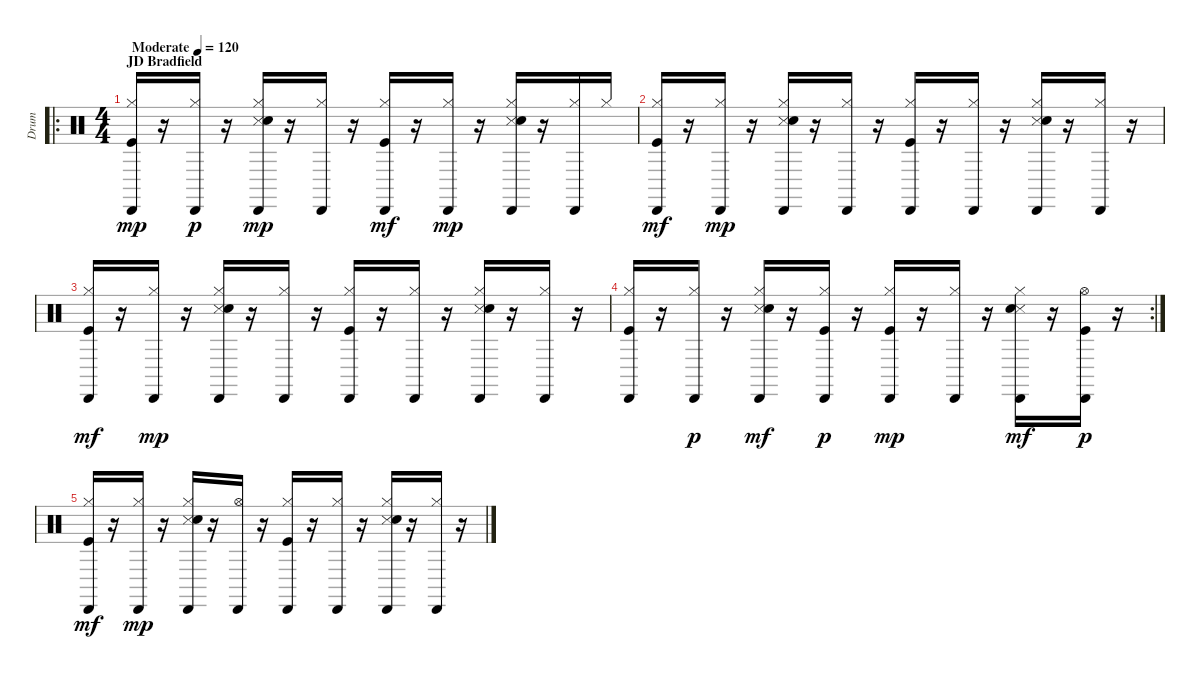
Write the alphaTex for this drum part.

\track ("Drum" "Drum") {instrument percussion}
\staff {score}
\articulation defaults
\ro
\ts (4 4)
\section ("" "JD Bradfield")
\tempo (120 "Moderate")
\clef neutral
\ks c
("Kick (hit)" "Hi-Hat (closed)" "Cabasa (hit)").16{dy mp} r.16 ("Hi-Hat (closed)" "Cabasa (hit)").16{dy p} r.16 ("Hi-Hat (closed)" "Snare (side stick) 3" "Hand Clap (hit)" "Cabasa (hit)").16{dy mp} r.16 ("Hi-Hat (closed)" "Cabasa (hit)").16 r.16 ("Kick (hit)" "Hi-Hat (closed)" "Cabasa (hit)").16{dy mf} r.16 ("Hi-Hat (closed)" "Cabasa (hit)").16{dy mp} r.16 ("Hi-Hat (closed)" "Snare (side stick) 3" "Hand Clap (hit)" "Cabasa (hit)").16 r.16 ("Hi-Hat (closed)" "Cabasa (hit)").16 "Hi-Hat (closed)".16 |
("Kick (hit)" "Hi-Hat (closed)" "Cabasa (hit)").16{dy mf} r.16 ("Hi-Hat (closed)" "Cabasa (hit)").16{dy mp} r.16 ("Hi-Hat (closed)" "Snare (side stick) 3" "Hand Clap (hit)" "Cabasa (hit)").16 r.16 ("Hi-Hat (closed)" "Cabasa (hit)").16 r.16 ("Kick (hit)" "Hi-Hat (closed)" "Cabasa (hit)").16 r.16 ("Hi-Hat (closed)" "Cabasa (hit)").16 r.16 ("Hi-Hat (closed)" "Snare (side stick) 3" "Hand Clap (hit)" "Cabasa (hit)").16 r.16 ("Hi-Hat (closed)" "Cabasa (hit)").16 r.16 |
("Kick (hit)" "Hi-Hat (closed)" "Cabasa (hit)").16{dy mf} r.16 ("Hi-Hat (closed)" "Cabasa (hit)").16{dy mp} r.16 ("Hi-Hat (closed)" "Snare (side stick) 3" "Hand Clap (hit)" "Cabasa (hit)").16 r.16 ("Hi-Hat (closed)" "Cabasa (hit)").16 r.16 ("Kick (hit)" "Hi-Hat (closed)" "Cabasa (hit)").16 r.16 ("Hi-Hat (closed)" "Cabasa (hit)").16 r.16 ("Hi-Hat (closed)" "Snare (side stick) 3" "Hand Clap (hit)" "Cabasa (hit)").16 r.16 ("Hi-Hat (closed)" "Cabasa (hit)").16 r.16 |
\rc 2
("Kick (hit)" "Hi-Hat (closed)" "Cabasa (hit)").16 r.16 ("Hi-Hat (closed)" "Cabasa (hit)").16{dy p} r.16 ("Hi-Hat (closed)" "Snare (side stick) 3" "Hand Clap (hit)" "Cabasa (hit)").16{dy mf} r.16 ("Kick (hit)" "Hi-Hat (closed)" "Cabasa (hit)").16{dy p} r.16 ("Kick (hit)" "Hi-Hat (closed)" "Cabasa (hit)").16{dy mp} r.16 ("Hi-Hat (closed)" "Cabasa (hit)").16 r.16 ("Hi-Hat (closed)" "Snare (side stick) 3" "Hand Clap (hit)" "Cabasa (hit)").16{dy mf} r.16 ("Kick (hit)" "Hi-Hat (open)" "Cabasa (hit)").16{dy p} r.16 |
("Kick (hit)" "Hi-Hat (closed)" "Cabasa (hit)").16{dy mf} r.16 ("Hi-Hat (closed)" "Cabasa (hit)").16{dy mp} r.16 ("Hi-Hat (closed)" "Snare (side stick) 3" "Hand Clap (hit)" "Cabasa (hit)").16 r.16 ("Hi-Hat (open)" "Cabasa (hit)").16 r.16 ("Kick (hit)" "Hi-Hat (closed)" "Cabasa (hit)").16 r.16 ("Hi-Hat (closed)" "Cabasa (hit)").16 r.16 ("Hi-Hat (closed)" "Snare (side stick) 3" "Hand Clap (hit)" "Cabasa (hit)").16 r.16 ("Hi-Hat (closed)" "Cabasa (hit)").16 r.16
